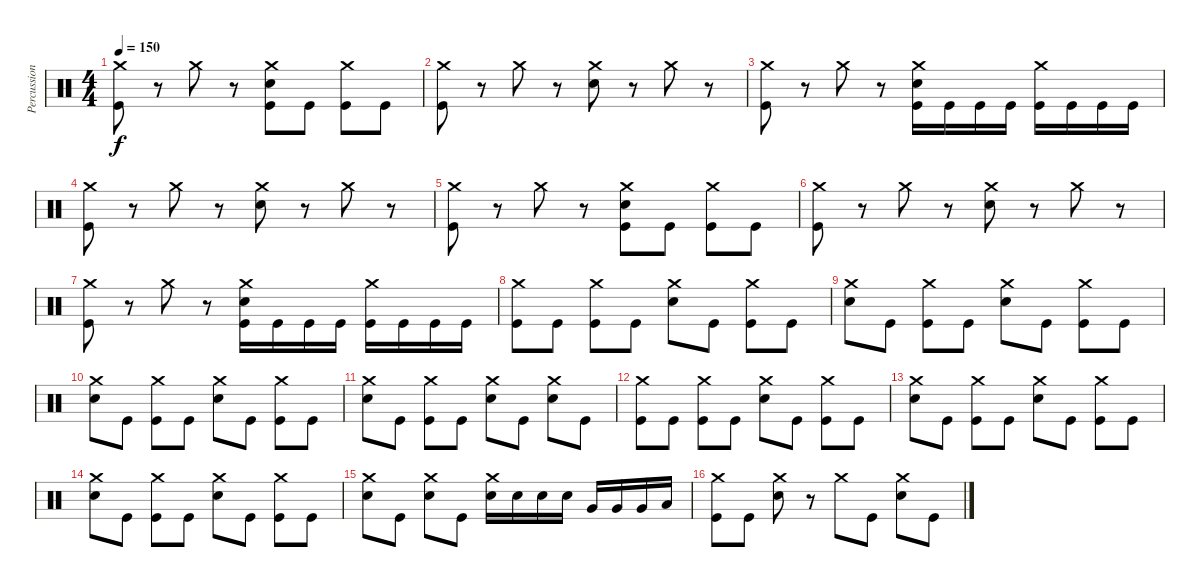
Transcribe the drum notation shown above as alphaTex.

\track ("Percussion" "Percussion") {instrument percussion}
\staff {score}
\articulation defaults
\ts (4 4)
\tempo 150
\clef neutral
\ks c
("Crash medium (hit)" "Kick (hit)").8{dy f} r.8 "Crash medium (hit)".8 r.8 ("Crash medium (hit)" "Snare (hit) 2" "Kick (hit)").8 "Kick (hit)".8 ("Crash medium (hit)" "Kick (hit)").8 "Kick (hit)".8 |
("Crash medium (hit)" "Kick (hit)").8 r.8 "Crash medium (hit)".8 r.8 ("Crash medium (hit)" "Snare (hit) 2").8 r.8 "Crash medium (hit)".8 r.8 |
("Crash medium (hit)" "Kick (hit)").8 r.8 "Crash medium (hit)".8 r.8 ("Crash medium (hit)" "Snare (hit) 2" "Kick (hit)").16 "Kick (hit)".16 "Kick (hit)".16 "Kick (hit)".16 ("Crash medium (hit)" "Kick (hit)").16 "Kick (hit)".16 "Kick (hit)".16 "Kick (hit)".16 |
("Crash medium (hit)" "Kick (hit)").8 r.8 "Crash medium (hit)".8 r.8 ("Crash medium (hit)" "Snare (hit) 2").8 r.8 "Crash medium (hit)".8 r.8 |
("Crash medium (hit)" "Kick (hit)").8 r.8 "Crash medium (hit)".8 r.8 ("Crash medium (hit)" "Snare (hit) 2" "Kick (hit)").8 "Kick (hit)".8 ("Crash medium (hit)" "Kick (hit)").8 "Kick (hit)".8 |
("Crash medium (hit)" "Kick (hit)").8 r.8 "Crash medium (hit)".8 r.8 ("Crash medium (hit)" "Snare (hit) 2").8 r.8 "Crash medium (hit)".8 r.8 |
("Crash medium (hit)" "Kick (hit)").8 r.8 "Crash medium (hit)".8 r.8 ("Crash medium (hit)" "Snare (hit) 2" "Kick (hit)").16 "Kick (hit)".16 "Kick (hit)".16 "Kick (hit)".16 ("Crash medium (hit)" "Kick (hit)").16 "Kick (hit)".16 "Kick (hit)".16 "Kick (hit)".16 |
("Crash medium (hit)" "Kick (hit)").8 "Kick (hit)".8 ("Crash medium (hit)" "Kick (hit)").8 "Kick (hit)".8 ("Crash medium (hit)" "Snare (hit) 2").8 "Kick (hit)".8 ("Crash medium (hit)" "Kick (hit)").8 "Kick (hit)".8 |
("Crash medium (hit)" "Snare (hit) 2").8 "Kick (hit)".8 ("Crash medium (hit)" "Kick (hit)").8 "Kick (hit)".8 ("Crash medium (hit)" "Snare (hit) 2").8 "Kick (hit)".8 ("Crash medium (hit)" "Kick (hit)").8 "Kick (hit)".8 |
("Crash medium (hit)" "Snare (hit) 2").8 "Kick (hit)".8 ("Crash medium (hit)" "Kick (hit)").8 "Kick (hit)".8 ("Crash medium (hit)" "Snare (hit) 2").8 "Kick (hit)".8 ("Crash medium (hit)" "Kick (hit)").8 "Kick (hit)".8 |
("Crash medium (hit)" "Snare (hit) 2").8 "Kick (hit)".8 ("Crash medium (hit)" "Kick (hit)").8 "Kick (hit)".8 ("Crash medium (hit)" "Snare (hit) 2").8 "Kick (hit)".8 ("Crash medium (hit)" "Snare (hit) 2").8 "Kick (hit)".8 |
("Crash medium (hit)" "Kick (hit)").8 "Kick (hit)".8 ("Crash medium (hit)" "Kick (hit)").8 "Kick (hit)".8 ("Crash medium (hit)" "Snare (hit) 2").8 "Kick (hit)".8 ("Crash medium (hit)" "Kick (hit)").8 "Kick (hit)".8 |
("Crash medium (hit)" "Snare (hit) 2").8 "Kick (hit)".8 ("Crash medium (hit)" "Kick (hit)").8 "Kick (hit)".8 ("Crash medium (hit)" "Snare (hit) 2").8 "Kick (hit)".8 ("Crash medium (hit)" "Kick (hit)").8 "Kick (hit)".8 |
("Crash medium (hit)" "Snare (hit) 2").8 "Kick (hit)".8 ("Crash medium (hit)" "Kick (hit)").8 "Kick (hit)".8 ("Crash medium (hit)" "Snare (hit) 2").8 "Kick (hit)".8 ("Crash medium (hit)" "Kick (hit)").8 "Kick (hit)".8 |
("Crash medium (hit)" "Snare (hit) 2").8 "Kick (hit)".8 ("Crash medium (hit)" "Snare (hit) 2").8 "Kick (hit)".8 ("Crash medium (hit)" "Snare (hit) 2").16 "Snare (hit) 2".16 "Snare (hit) 2".16 "Snare (hit) 2".16 "Very Low Tom (hit)".16 "Very Low Tom (hit)".16 "Very Low Tom (hit)".16 "Low Floor Tom (hit)".16 |
("Crash medium (hit)" "Kick (hit)").8 "Kick (hit)".8 ("Crash medium (hit)" "Snare (hit) 2").8 r.8 "Crash medium (hit)".8 "Kick (hit)".8 ("Crash medium (hit)" "Snare (hit) 2").8 "Kick (hit)".8
